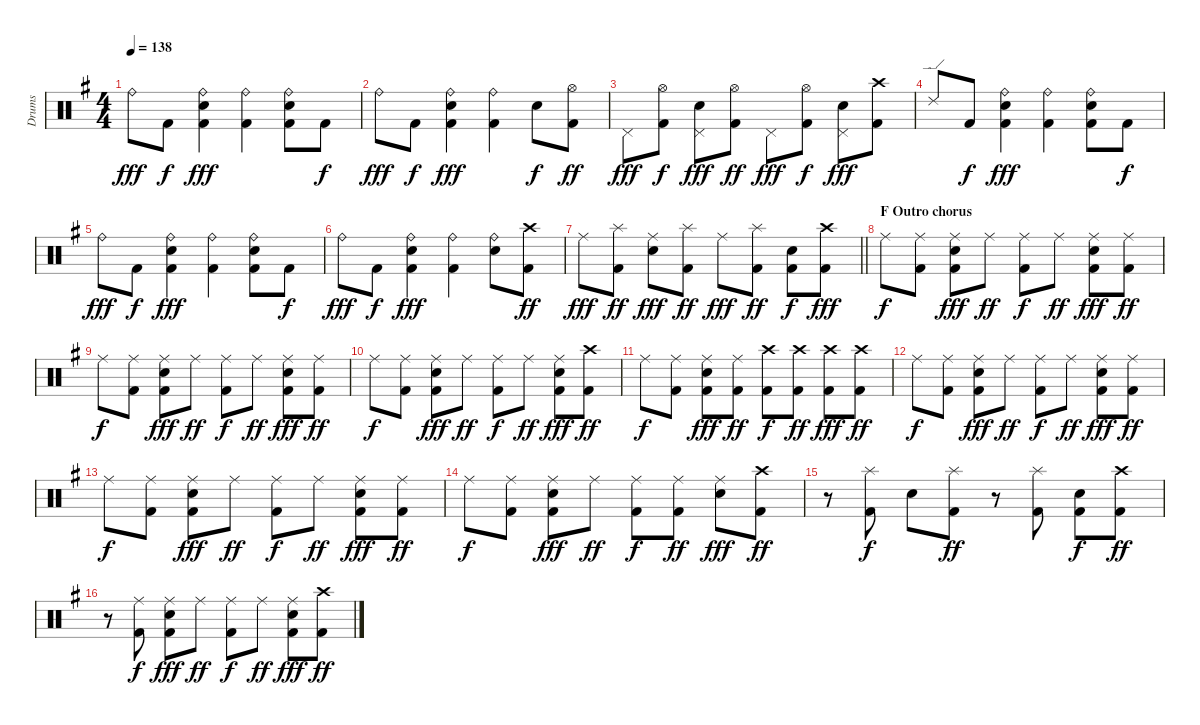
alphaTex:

\track ("Drums" "Drums") {instrument percussion}
\staff {score}
\articulation defaults
\ts (4 4)
\tempo 138
\clef neutral
\ks g "Ride (bell)".8{dy fff} "Kick (hit) 2".8{dy f}
("Ride (bell)" "Snare (hit) 2" "Kick (hit) 2").4{dy fff} ("Ride (bell)" "Kick (hit) 2").4 ("Ride (bell)" "Snare (hit) 2" "Kick (hit) 2").8 "Kick (hit) 2".8{dy f} |
"Ride (bell)".8{dy fff} "Kick (hit) 2".8{dy f} ("Ride (bell)" "Snare (hit) 2" "Kick (hit) 2").4{dy fff} ("Ride (bell)" "Kick (hit) 2").4 "Snare (hit) 2".8{dy f} ("Hi-Hat (open)" "Kick (hit) 2").8{dy ff} |
"Pedal Hi-Hat (hit)".8{dy fff} ("Hi-Hat (open)" "Kick (hit) 2").8{dy f} ("Snare (hit) 2" "Pedal Hi-Hat (hit)").8{dy fff} ("Hi-Hat (open)" "Kick (hit) 2").8{dy ff} "Pedal Hi-Hat (hit)".8{dy fff} ("Hi-Hat (open)" "Kick (hit) 2").8{dy f} ("Snare (hit) 2" "Pedal Hi-Hat (hit)").8{dy fff} ("Crash high (hit)" "Kick (hit) 2").8 |
"Ride (edge) 2".8 "Kick (hit) 2".8{dy f} ("Ride (bell)" "Snare (hit) 2" "Kick (hit) 2").4{dy fff} ("Ride (bell)" "Kick (hit) 2").4 ("Ride (bell)" "Snare (hit) 2" "Kick (hit) 2").8 "Kick (hit) 2".8{dy f} |
"Ride (bell)".8{dy fff} "Kick (hit) 2".8{dy f} ("Ride (bell)" "Snare (hit) 2" "Kick (hit) 2").4{dy fff} ("Ride (bell)" "Kick (hit) 2").4 ("Ride (bell)" "Snare (hit) 2" "Kick (hit) 2").8 "Kick (hit) 2".8{dy f} |
"Ride (bell)".8{dy fff} "Kick (hit) 2".8{dy f} ("Ride (bell)" "Snare (hit) 2" "Kick (hit) 2").4{dy fff} ("Ride (bell)" "Kick (hit) 2").4 ("Ride (bell)" "Snare (hit) 2").8 ("Crash high (hit)" "Kick (hit) 2").8{dy ff} |
\barLineRight lightlight "Ride (middle)".8{dy fff}
("Splash (hit)" "Kick (hit) 2").8{dy ff} ("Ride (middle)" "Snare (hit) 2").8{dy fff} ("Splash (hit)" "Kick (hit) 2").8{dy ff} "Ride (middle)".8{dy fff} ("Splash (hit)" "Kick (hit) 2").8{dy ff} ("Snare (hit) 2" "Kick (hit) 2").8{dy f} ("Crash high (hit)" "Kick (hit) 2").8{dy fff} |
\section ("" "F Outro chorus")
"Ride (middle)".8{dy f} ("Ride (middle)" "Kick (hit) 2").8 ("Ride (middle)" "Snare (hit) 2" "Kick (hit) 2").8{dy fff} "Ride (middle)".8{dy ff} ("Ride (middle)" "Kick (hit) 2").8{dy f} "Ride (middle)".8{dy ff} ("Ride (middle)" "Snare (hit) 2" "Kick (hit) 2").8{dy fff} ("Ride (middle)" "Kick (hit) 2").8{dy ff} |
"Ride (middle)".8{dy f} ("Ride (middle)" "Kick (hit) 2").8 ("Ride (middle)" "Snare (hit) 2" "Kick (hit) 2").8{dy fff} "Ride (middle)".8{dy ff} ("Ride (middle)" "Kick (hit) 2").8{dy f} "Ride (middle)".8{dy ff} ("Ride (middle)" "Snare (hit) 2" "Kick (hit) 2").8{dy fff} ("Ride (middle)" "Kick (hit) 2").8{dy ff} |
"Ride (middle)".8{dy f} ("Ride (middle)" "Kick (hit) 2").8 ("Ride (middle)" "Snare (hit) 2" "Kick (hit) 2").8{dy fff} "Ride (middle)".8{dy ff} ("Ride (middle)" "Kick (hit) 2").8{dy f} "Ride (middle)".8{dy ff} ("Ride (middle)" "Snare (hit) 2" "Kick (hit) 2").8{dy fff} ("Crash high (hit)" "Kick (hit) 2").8{dy ff} |
"Ride (middle)".8{dy f} ("Ride (middle)" "Kick (hit) 2").8 ("Ride (middle)" "Snare (hit) 2" "Kick (hit) 2").8{dy fff} ("Ride (middle)" "Kick (hit) 2").8{dy ff} ("Crash high (hit)" "Kick (hit) 2").8{dy f} ("Crash high (hit)" "Kick (hit) 2").8{dy ff} ("Crash high (hit)" "Kick (hit) 2").8{dy fff} ("Crash high (hit)" "Kick (hit) 2").8{dy ff} |
"Ride (middle)".8{dy f} ("Ride (middle)" "Kick (hit) 2").8 ("Ride (middle)" "Snare (hit) 2" "Kick (hit) 2").8{dy fff} "Ride (middle)".8{dy ff} ("Ride (middle)" "Kick (hit) 2").8{dy f} "Ride (middle)".8{dy ff} ("Ride (middle)" "Snare (hit) 2" "Kick (hit) 2").8{dy fff} ("Ride (middle)" "Kick (hit) 2").8{dy ff} |
"Ride (middle)".8{dy f} ("Ride (middle)" "Kick (hit) 2").8 ("Ride (middle)" "Snare (hit) 2" "Kick (hit) 2").8{dy fff} "Ride (middle)".8{dy ff} ("Ride (middle)" "Kick (hit) 2").8{dy f} "Ride (middle)".8{dy ff} ("Ride (middle)" "Snare (hit) 2" "Kick (hit) 2").8{dy fff} ("Ride (middle)" "Kick (hit) 2").8{dy ff} |
"Ride (middle)".8{dy f} ("Ride (middle)" "Kick (hit) 2").8 ("Ride (middle)" "Snare (hit) 2" "Kick (hit) 2").8{dy fff} "Ride (middle)".8{dy ff} ("Ride (middle)" "Kick (hit) 2").8{dy f} ("Ride (middle)" "Kick (hit) 2").8{dy ff} ("Ride (middle)" "Snare (hit) 2").8{dy fff} ("Crash high (hit)" "Kick (hit) 2").8{dy ff} |
r.8 ("Splash (hit)" "Kick (hit) 2").8{dy f} "Snare (hit) 2".8 ("Splash (hit)" "Kick (hit) 2").8{dy ff} r.8 ("Splash (hit)" "Kick (hit) 2").8 ("Snare (hit) 2" "Kick (hit) 2").8{dy f} ("Crash high (hit)" "Kick (hit) 2").8{dy ff} |
r.8 ("Ride (middle)" "Kick (hit) 2").8{dy f} ("Ride (middle)" "Snare (hit) 2" "Kick (hit) 2").8{dy fff} "Ride (middle)".8{dy ff} ("Ride (middle)" "Kick (hit) 2").8{dy f} "Ride (middle)".8{dy ff} ("Ride (middle)" "Snare (hit) 2" "Kick (hit) 2").8{dy fff} ("Crash high (hit)" "Kick (hit) 2").8{dy ff}
